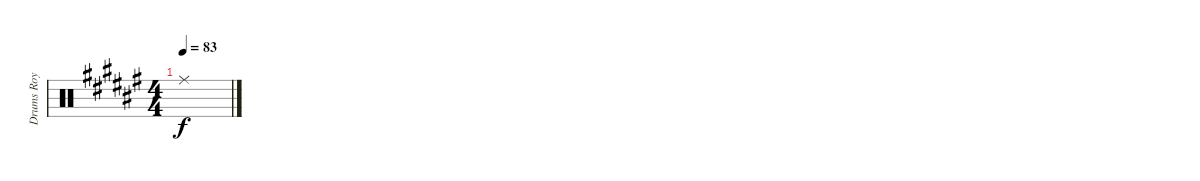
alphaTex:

\track ("Drums Roy" "Drums Roy") {instrument percussion}
\staff {score}
\articulation defaults
\ts (4 4)
\tempo 83
\clef neutral
\ks d#minor "Ride (middle)".1{dy f}
